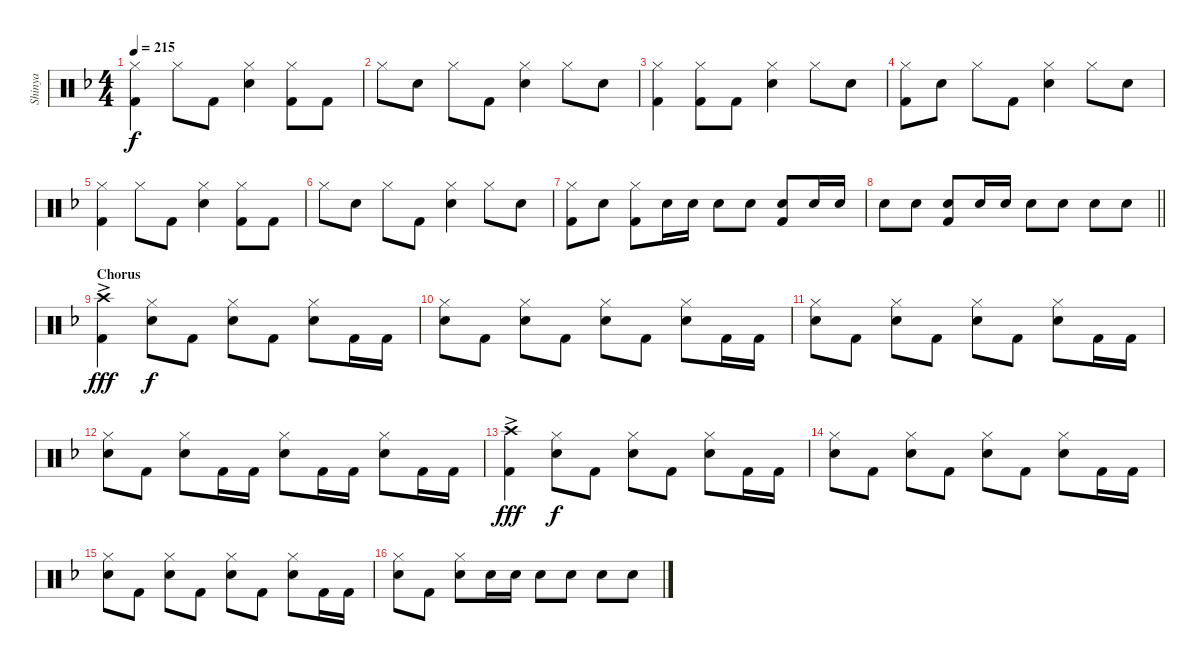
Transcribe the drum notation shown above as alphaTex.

\track ("Shinya" "Shinya") {instrument percussion}
\staff {score}
\articulation defaults
\ts (4 4)
\tempo 215
\clef neutral
\ks f
("Hi-Hat (closed)" "Kick (hit) 2").4{dy f} "Hi-Hat (closed)".8 "Kick (hit) 2".8 ("Hi-Hat (closed)" "Snare (hit) 2").4 ("Hi-Hat (closed)" "Kick (hit) 2").8 "Kick (hit) 2".8 |
"Hi-Hat (closed)".8 "Snare (hit) 2".8 "Hi-Hat (closed)".8 "Kick (hit) 2".8 ("Hi-Hat (closed)" "Snare (hit) 2").4 "Hi-Hat (closed)".8 "Snare (hit) 2".8 |
("Hi-Hat (closed)" "Kick (hit) 2").4 ("Hi-Hat (closed)" "Kick (hit) 2").8 "Kick (hit) 2".8 ("Hi-Hat (closed)" "Snare (hit) 2").4 "Hi-Hat (closed)".8 "Snare (hit) 2".8 |
("Hi-Hat (closed)" "Kick (hit) 2").8 "Snare (hit) 2".8 "Hi-Hat (closed)".8 "Kick (hit) 2".8 ("Hi-Hat (closed)" "Snare (hit) 2").4 "Hi-Hat (closed)".8 "Snare (hit) 2".8 |
("Hi-Hat (closed)" "Kick (hit) 2").4 "Hi-Hat (closed)".8 "Kick (hit) 2".8 ("Hi-Hat (closed)" "Snare (hit) 2").4 ("Hi-Hat (closed)" "Kick (hit) 2").8 "Kick (hit) 2".8 |
"Hi-Hat (closed)".8 "Snare (hit) 2".8 "Hi-Hat (closed)".8 "Kick (hit) 2".8 ("Hi-Hat (closed)" "Snare (hit) 2").4 "Hi-Hat (closed)".8 "Snare (hit) 2".8 |
("Hi-Hat (closed)" "Kick (hit) 2").8 "Snare (hit) 2".8 ("Hi-Hat (closed)" "Kick (hit) 2").8 "Snare (hit) 2".16 "Snare (hit) 2".16 "Snare (hit) 2".8 "Snare (hit) 2".8 ("Snare (hit) 2" "Kick (hit) 2").8 "Snare (hit) 2".16 "Snare (hit) 2".16 |
\barLineRight lightlight "Snare (hit) 2".8 "Snare (hit) 2".8
("Snare (hit) 2" "Kick (hit) 2").8 "Snare (hit) 2".16 "Snare (hit) 2".16 "Snare (hit) 2".8 "Snare (hit) 2".8 "Snare (hit) 2".8 "Snare (hit) 2".8 |
\section ("" "Chorus")
("Crash high (hit)"{ac} "Kick (hit) 2").4{dy fff} ("Hi-Hat (closed)" "Snare (hit) 2").8{dy f} "Kick (hit) 2".8 ("Hi-Hat (closed)" "Snare (hit) 2").8 "Kick (hit) 2".8 ("Hi-Hat (closed)" "Snare (hit) 2").8 "Kick (hit) 2".16 "Kick (hit) 2".16 |
("Hi-Hat (closed)" "Snare (hit) 2").8 "Kick (hit) 2".8 ("Hi-Hat (closed)" "Snare (hit) 2").8 "Kick (hit) 2".8 ("Hi-Hat (closed)" "Snare (hit) 2").8 "Kick (hit) 2".8 ("Hi-Hat (closed)" "Snare (hit) 2").8 "Kick (hit) 2".16 "Kick (hit) 2".16 |
("Hi-Hat (closed)" "Snare (hit) 2").8 "Kick (hit) 2".8 ("Hi-Hat (closed)" "Snare (hit) 2").8 "Kick (hit) 2".8 ("Hi-Hat (closed)" "Snare (hit) 2").8 "Kick (hit) 2".8 ("Hi-Hat (closed)" "Snare (hit) 2").8 "Kick (hit) 2".16 "Kick (hit) 2".16 |
("Hi-Hat (closed)" "Snare (hit) 2").8 "Kick (hit) 2".8 ("Hi-Hat (closed)" "Snare (hit) 2").8 "Kick (hit) 2".16 "Kick (hit) 2".16 ("Hi-Hat (closed)" "Snare (hit) 2").8 "Kick (hit) 2".16 "Kick (hit) 2".16 ("Hi-Hat (closed)" "Snare (hit) 2").8 "Kick (hit) 2".16 "Kick (hit) 2".16 |
("Crash high (hit)"{ac} "Kick (hit) 2").4{dy fff} ("Hi-Hat (closed)" "Snare (hit) 2").8{dy f} "Kick (hit) 2".8 ("Hi-Hat (closed)" "Snare (hit) 2").8 "Kick (hit) 2".8 ("Hi-Hat (closed)" "Snare (hit) 2").8 "Kick (hit) 2".16 "Kick (hit) 2".16 |
("Hi-Hat (closed)" "Snare (hit) 2").8 "Kick (hit) 2".8 ("Hi-Hat (closed)" "Snare (hit) 2").8 "Kick (hit) 2".8 ("Hi-Hat (closed)" "Snare (hit) 2").8 "Kick (hit) 2".8 ("Hi-Hat (closed)" "Snare (hit) 2").8 "Kick (hit) 2".16 "Kick (hit) 2".16 |
("Hi-Hat (closed)" "Snare (hit) 2").8 "Kick (hit) 2".8 ("Hi-Hat (closed)" "Snare (hit) 2").8 "Kick (hit) 2".8 ("Hi-Hat (closed)" "Snare (hit) 2").8 "Kick (hit) 2".8 ("Hi-Hat (closed)" "Snare (hit) 2").8 "Kick (hit) 2".16 "Kick (hit) 2".16 |
("Hi-Hat (closed)" "Snare (hit) 2").8 "Kick (hit) 2".8 ("Hi-Hat (closed)" "Snare (hit) 2").8 "Snare (hit) 2".16 "Snare (hit) 2".16 "Snare (hit) 2".8 "Snare (hit) 2".8 "Snare (hit) 2".8 "Snare (hit) 2".8
